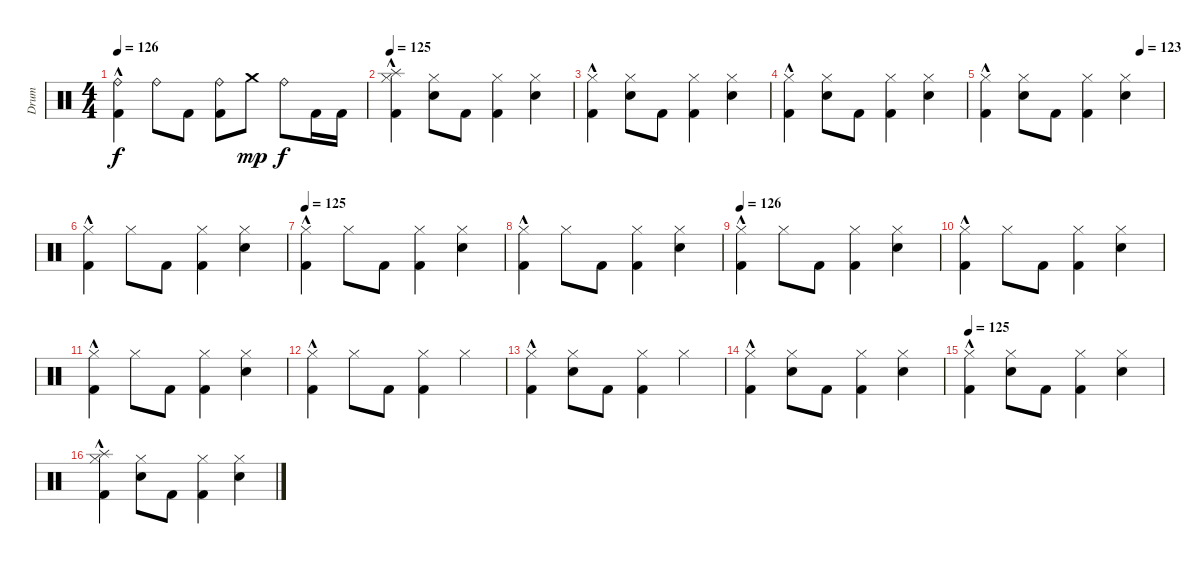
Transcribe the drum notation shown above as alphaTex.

\track ("Drum" "Drum") {instrument percussion}
\staff {score}
\articulation defaults
\ts (4 4)
\tempo 126
\clef neutral
\ks c
("Ride (bell)" "Kick (hit) 2"{hac}).4{dy f} "Ride (bell)".8 "Kick (hit) 2".8 ("Ride (bell)" "Kick (hit) 2").8 "Crash medium (hit)".8{dy mp} "Ride (bell)".8{dy f} "Kick (hit) 2".16 "Kick (hit) 2".16 |
\tempo 125
("Hi-Hat (closed)" "Splash (hit)" "Kick (hit) 2"{hac}).4 ("Electric Snare (hit)" "Hi-Hat (closed)").8 "Kick (hit) 2".8 ("Hi-Hat (closed)" "Kick (hit) 2").4 ("Electric Snare (hit)" "Hi-Hat (closed)").4 |
("Hi-Hat (closed)" "Kick (hit) 2"{hac}).4 ("Hi-Hat (closed)" "Electric Snare (hit)").8 "Kick (hit) 2".8 ("Hi-Hat (closed)" "Kick (hit) 2").4 ("Hi-Hat (closed)" "Electric Snare (hit)").4 |
("Hi-Hat (closed)" "Kick (hit) 2"{hac}).4 ("Hi-Hat (closed)" "Electric Snare (hit)").8 "Kick (hit) 2".8 ("Hi-Hat (closed)" "Kick (hit) 2").4 ("Hi-Hat (closed)" "Electric Snare (hit)").4 |
\tempo (123 0.875)
("Hi-Hat (closed)" "Kick (hit) 2"{hac}).4 ("Hi-Hat (closed)" "Electric Snare (hit)").8 "Kick (hit) 2".8 ("Hi-Hat (closed)" "Kick (hit) 2").4 ("Hi-Hat (closed)" "Electric Snare (hit)").4 |
("Hi-Hat (closed)" "Kick (hit) 2"{hac}).4 "Hi-Hat (closed)".8 "Kick (hit) 2".8 ("Hi-Hat (closed)" "Kick (hit) 2").4 ("Hi-Hat (closed)" "Electric Snare (hit)").4 |
\tempo 125
("Hi-Hat (closed)" "Kick (hit) 2"{hac}).4 "Hi-Hat (closed)".8 "Kick (hit) 2".8 ("Hi-Hat (closed)" "Kick (hit) 2").4 ("Hi-Hat (closed)" "Electric Snare (hit)").4 |
("Hi-Hat (closed)" "Kick (hit) 2"{hac}).4 "Hi-Hat (closed)".8 "Kick (hit) 2".8 ("Hi-Hat (closed)" "Kick (hit) 2").4 ("Hi-Hat (closed)" "Electric Snare (hit)").4 |
\tempo 126
("Hi-Hat (closed)" "Kick (hit) 2"{hac}).4 "Hi-Hat (closed)".8 "Kick (hit) 2".8 ("Hi-Hat (closed)" "Kick (hit) 2").4 ("Hi-Hat (closed)" "Electric Snare (hit)").4 |
("Hi-Hat (closed)" "Kick (hit) 2"{hac}).4 "Hi-Hat (closed)".8 "Kick (hit) 2".8 ("Hi-Hat (closed)" "Kick (hit) 2").4 ("Hi-Hat (closed)" "Electric Snare (hit)").4 |
("Hi-Hat (closed)" "Kick (hit) 2"{hac}).4 "Hi-Hat (closed)".8 "Kick (hit) 2".8 ("Hi-Hat (closed)" "Kick (hit) 2").4 ("Hi-Hat (closed)" "Electric Snare (hit)").4 |
("Hi-Hat (closed)" "Kick (hit) 2"{hac}).4 "Hi-Hat (closed)".8 "Kick (hit) 2".8 ("Hi-Hat (closed)" "Kick (hit) 2").4 "Hi-Hat (closed)".4 |
("Hi-Hat (closed)" "Kick (hit) 2"{hac}).4 ("Hi-Hat (closed)" "Electric Snare (hit)").8 "Kick (hit) 2".8 ("Hi-Hat (closed)" "Kick (hit) 2").4 "Hi-Hat (closed)".4 |
("Hi-Hat (closed)" "Kick (hit) 2"{hac}).4 ("Hi-Hat (closed)" "Electric Snare (hit)").8 "Kick (hit) 2".8 ("Hi-Hat (closed)" "Kick (hit) 2").4 ("Hi-Hat (closed)" "Electric Snare (hit)").4 |
\tempo 125
("Hi-Hat (closed)" "Kick (hit) 2"{hac}).4 ("Hi-Hat (closed)" "Electric Snare (hit)").8 "Kick (hit) 2".8 ("Hi-Hat (closed)" "Kick (hit) 2").4 ("Hi-Hat (closed)" "Electric Snare (hit)").4 |
("Splash (hit)" "Hi-Hat (closed)" "Kick (hit) 2"{hac}).4 ("Hi-Hat (closed)" "Electric Snare (hit)").8 "Kick (hit) 2".8 ("Kick (hit) 2" "Hi-Hat (closed)").4 ("Electric Snare (hit)" "Hi-Hat (closed)").4
